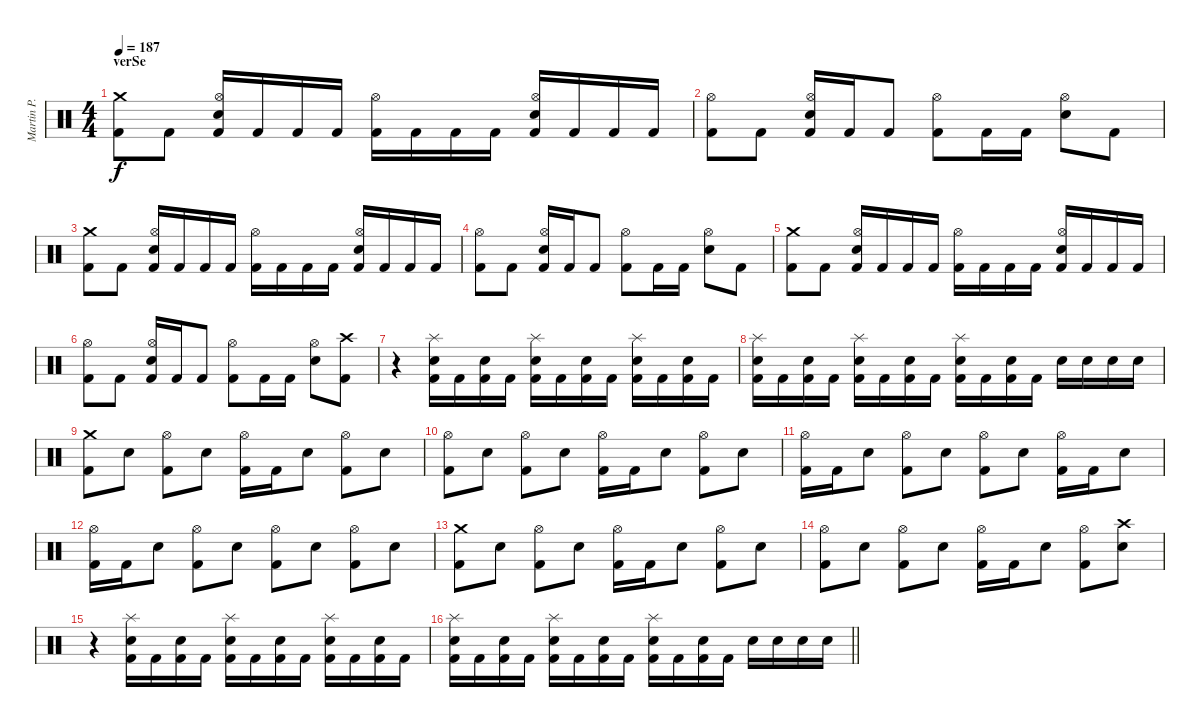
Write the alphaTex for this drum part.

\track ("Martin P." "Martin P.") {instrument percussion}
\staff {score}
\articulation defaults
\ts (4 4)
\section ("" "verSe")
\tempo 187
\clef neutral
\ks c
("Kick (hit) 2" "Crash medium (hit)").8{dy f} "Kick (hit) 2".8 ("Kick (hit) 2" "Hi-Hat (open)" "Electric Snare (hit)").16 "Kick (hit) 2".16 "Kick (hit) 2".16 "Kick (hit) 2".16 ("Kick (hit) 2" "Hi-Hat (open)").16 "Kick (hit) 2".16 "Kick (hit) 2".16 "Kick (hit) 2".16 ("Kick (hit) 2" "Hi-Hat (open)" "Electric Snare (hit)").16 "Kick (hit) 2".16 "Kick (hit) 2".16 "Kick (hit) 2".16 |
("Kick (hit) 2" "Hi-Hat (open)").8 "Kick (hit) 2".8 ("Electric Snare (hit)" "Hi-Hat (open)" "Kick (hit) 2").16 "Kick (hit) 2".16 "Kick (hit) 2".8 ("Kick (hit) 2" "Hi-Hat (open)").8 "Kick (hit) 2".16 "Kick (hit) 2".16 ("Electric Snare (hit)" "Hi-Hat (open)").8 "Kick (hit) 2".8 |
("Kick (hit) 2" "Crash medium (hit)").8 "Kick (hit) 2".8 ("Kick (hit) 2" "Hi-Hat (open)" "Electric Snare (hit)").16 "Kick (hit) 2".16 "Kick (hit) 2".16 "Kick (hit) 2".16 ("Kick (hit) 2" "Hi-Hat (open)").16 "Kick (hit) 2".16 "Kick (hit) 2".16 "Kick (hit) 2".16 ("Kick (hit) 2" "Hi-Hat (open)" "Electric Snare (hit)").16 "Kick (hit) 2".16 "Kick (hit) 2".16 "Kick (hit) 2".16 |
("Kick (hit) 2" "Hi-Hat (open)").8 "Kick (hit) 2".8 ("Electric Snare (hit)" "Hi-Hat (open)" "Kick (hit) 2").16 "Kick (hit) 2".16 "Kick (hit) 2".8 ("Kick (hit) 2" "Hi-Hat (open)").8 "Kick (hit) 2".16 "Kick (hit) 2".16 ("Electric Snare (hit)" "Hi-Hat (open)").8 "Kick (hit) 2".8 |
("Kick (hit) 2" "Crash medium (hit)").8 "Kick (hit) 2".8 ("Kick (hit) 2" "Hi-Hat (open)" "Electric Snare (hit)").16 "Kick (hit) 2".16 "Kick (hit) 2".16 "Kick (hit) 2".16 ("Kick (hit) 2" "Hi-Hat (open)").16 "Kick (hit) 2".16 "Kick (hit) 2".16 "Kick (hit) 2".16 ("Kick (hit) 2" "Hi-Hat (open)" "Electric Snare (hit)").16 "Kick (hit) 2".16 "Kick (hit) 2".16 "Kick (hit) 2".16 |
("Kick (hit) 2" "Hi-Hat (open)").8 "Kick (hit) 2".8 ("Electric Snare (hit)" "Hi-Hat (open)" "Kick (hit) 2").16 "Kick (hit) 2".16 "Kick (hit) 2".8 ("Kick (hit) 2" "Hi-Hat (open)").8 "Kick (hit) 2".16 "Kick (hit) 2".16 ("Electric Snare (hit)" "Hi-Hat (open)").8 ("Kick (hit) 2" "Crash high (hit)").8 |
r.4 ("Electric Snare (hit)" "Splash (hit)" "Kick (hit) 2").16 "Kick (hit) 2".16 ("Electric Snare (hit)" "Kick (hit) 2").16 "Kick (hit) 2".16 ("Electric Snare (hit)" "Splash (hit)" "Kick (hit) 2").16 "Kick (hit) 2".16 ("Electric Snare (hit)" "Kick (hit) 2").16 "Kick (hit) 2".16 ("Electric Snare (hit)" "Splash (hit)" "Kick (hit) 2").16 "Kick (hit) 2".16 ("Electric Snare (hit)" "Kick (hit) 2").16 "Kick (hit) 2".16 |
("Electric Snare (hit)" "Splash (hit)" "Kick (hit) 2").16 "Kick (hit) 2".16 ("Electric Snare (hit)" "Kick (hit) 2").16 "Kick (hit) 2".16 ("Electric Snare (hit)" "Splash (hit)" "Kick (hit) 2").16 "Kick (hit) 2".16 ("Electric Snare (hit)" "Kick (hit) 2").16 "Kick (hit) 2".16 ("Electric Snare (hit)" "Splash (hit)" "Kick (hit) 2").16 "Kick (hit) 2".16 ("Electric Snare (hit)" "Kick (hit) 2").16 "Kick (hit) 2".16 "Electric Snare (hit)".16 "Electric Snare (hit)".16 "Electric Snare (hit)".16 "Electric Snare (hit)".16 |
("Kick (hit) 2" "Crash medium (hit)").8 "Electric Snare (hit)".8 ("Kick (hit) 2" "Hi-Hat (open)").8 "Electric Snare (hit)".8 ("Kick (hit) 2" "Hi-Hat (open)").16 "Kick (hit) 2".16 "Electric Snare (hit)".8 ("Kick (hit) 2" "Hi-Hat (open)").8 "Electric Snare (hit)".8 |
("Kick (hit) 2" "Hi-Hat (open)").8 "Electric Snare (hit)".8 ("Kick (hit) 2" "Hi-Hat (open)").8 "Electric Snare (hit)".8 ("Kick (hit) 2" "Hi-Hat (open)").16 "Kick (hit) 2".16 "Electric Snare (hit)".8 ("Kick (hit) 2" "Hi-Hat (open)").8 "Electric Snare (hit)".8 |
("Kick (hit) 2" "Hi-Hat (open)").16 "Kick (hit) 2".16 "Electric Snare (hit)".8 ("Kick (hit) 2" "Hi-Hat (open)").8 "Electric Snare (hit)".8 ("Kick (hit) 2" "Hi-Hat (open)").8 "Electric Snare (hit)".8 ("Kick (hit) 2" "Hi-Hat (open)").16 "Kick (hit) 2".16 "Electric Snare (hit)".8 |
("Kick (hit) 2" "Hi-Hat (open)").16 "Kick (hit) 2".16 "Electric Snare (hit)".8 ("Kick (hit) 2" "Hi-Hat (open)").8 "Electric Snare (hit)".8 ("Kick (hit) 2" "Hi-Hat (open)").8 "Electric Snare (hit)".8 ("Kick (hit) 2" "Hi-Hat (open)").8 "Electric Snare (hit)".8 |
("Kick (hit) 2" "Crash medium (hit)").8 "Electric Snare (hit)".8 ("Kick (hit) 2" "Hi-Hat (open)").8 "Electric Snare (hit)".8 ("Kick (hit) 2" "Hi-Hat (open)").16 "Kick (hit) 2".16 "Electric Snare (hit)".8 ("Kick (hit) 2" "Hi-Hat (open)").8 "Electric Snare (hit)".8 |
("Kick (hit) 2" "Hi-Hat (open)").8 "Electric Snare (hit)".8 ("Kick (hit) 2" "Hi-Hat (open)").8 "Electric Snare (hit)".8 ("Kick (hit) 2" "Hi-Hat (open)").16 "Kick (hit) 2".16 "Electric Snare (hit)".8 ("Kick (hit) 2" "Hi-Hat (open)").8 ("Electric Snare (hit)" "Crash high (hit)").8 |
r.4 ("Electric Snare (hit)" "Splash (hit)" "Kick (hit) 2").16 "Kick (hit) 2".16 ("Electric Snare (hit)" "Kick (hit) 2").16 "Kick (hit) 2".16 ("Electric Snare (hit)" "Splash (hit)" "Kick (hit) 2").16 "Kick (hit) 2".16 ("Electric Snare (hit)" "Kick (hit) 2").16 "Kick (hit) 2".16 ("Electric Snare (hit)" "Splash (hit)" "Kick (hit) 2").16 "Kick (hit) 2".16 ("Electric Snare (hit)" "Kick (hit) 2").16 "Kick (hit) 2".16 |
\barLineRight lightlight
("Electric Snare (hit)" "Splash (hit)" "Kick (hit) 2").16 "Kick (hit) 2".16 ("Electric Snare (hit)" "Kick (hit) 2").16 "Kick (hit) 2".16 ("Electric Snare (hit)" "Splash (hit)" "Kick (hit) 2").16 "Kick (hit) 2".16 ("Electric Snare (hit)" "Kick (hit) 2").16 "Kick (hit) 2".16 ("Electric Snare (hit)" "Splash (hit)" "Kick (hit) 2").16 "Kick (hit) 2".16 ("Electric Snare (hit)" "Kick (hit) 2").16 "Kick (hit) 2".16 "Electric Snare (hit)".16 "Electric Snare (hit)".16 "Electric Snare (hit)".16 "Electric Snare (hit)".16
